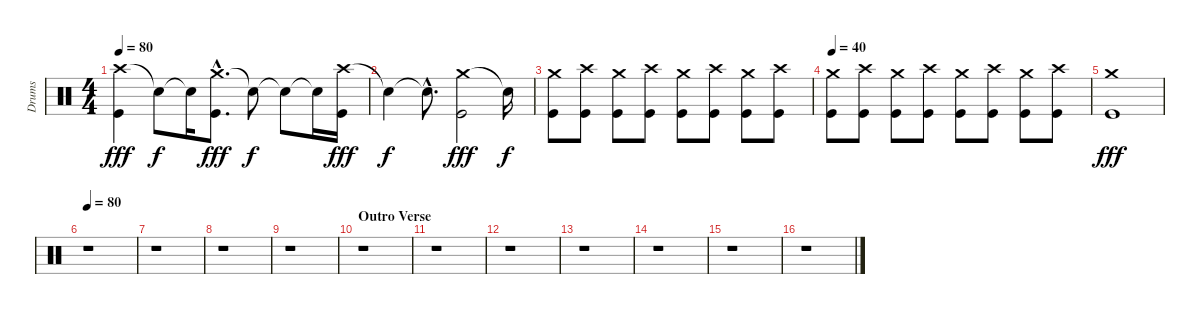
\track ("Drums" "Drums") {instrument percussion}
\staff {score}
\articulation defaults
\ts (4 4)
\tempo 80
\clef neutral
\ks c
("Crash high (hit)" "Kick (hit)").4{dy fff} "Snare (hit)"{t}.8{dy f} "Snare (hit)"{t}.16 ("Crash medium (hit)"{hac} "Kick (hit)"{hac}).8{d dy fff} "Snare (hit)"{t}.8{dy f} "Snare (hit)"{t}.8 "Snare (hit)"{t}.16 ("Crash high (hit)" "Kick (hit)").16{dy fff} |
"Snare (hit)"{t}.4{dy f} "Snare (hit)"{hac t}.8{d} ("Crash medium (hit)" "Kick (hit)").2{dy fff} "Snare (hit)"{t}.16{dy f} |
("Crash medium (hit)" "Kick (hit)").8 ("Crash high (hit)" "Kick (hit)").8 ("Crash medium (hit)" "Kick (hit)").8 ("Crash high (hit)" "Kick (hit)").8 ("Crash medium (hit)" "Kick (hit)").8 ("Crash high (hit)" "Kick (hit)").8 ("Crash medium (hit)" "Kick (hit)").8 ("Crash high (hit)" "Kick (hit)").8 |
\tempo 40
("Crash medium (hit)" "Kick (hit)").8 ("Crash high (hit)" "Kick (hit)").8 ("Crash medium (hit)" "Kick (hit)").8 ("Crash high (hit)" "Kick (hit)").8 ("Crash medium (hit)" "Kick (hit)").8 ("Crash high (hit)" "Kick (hit)").8 ("Crash medium (hit)" "Kick (hit)").8 ("Crash high (hit)" "Kick (hit)").8 |
("Crash medium (hit)" "Kick (hit)").1{dy fff} |
\tempo 80
r.1 |
r.1 |
r.1 |
r.1 |
\section ("" "Outro Verse")
r.1 |
r.1 |
r.1 |
r.1 |
r.1 |
r.1 |
r.1
